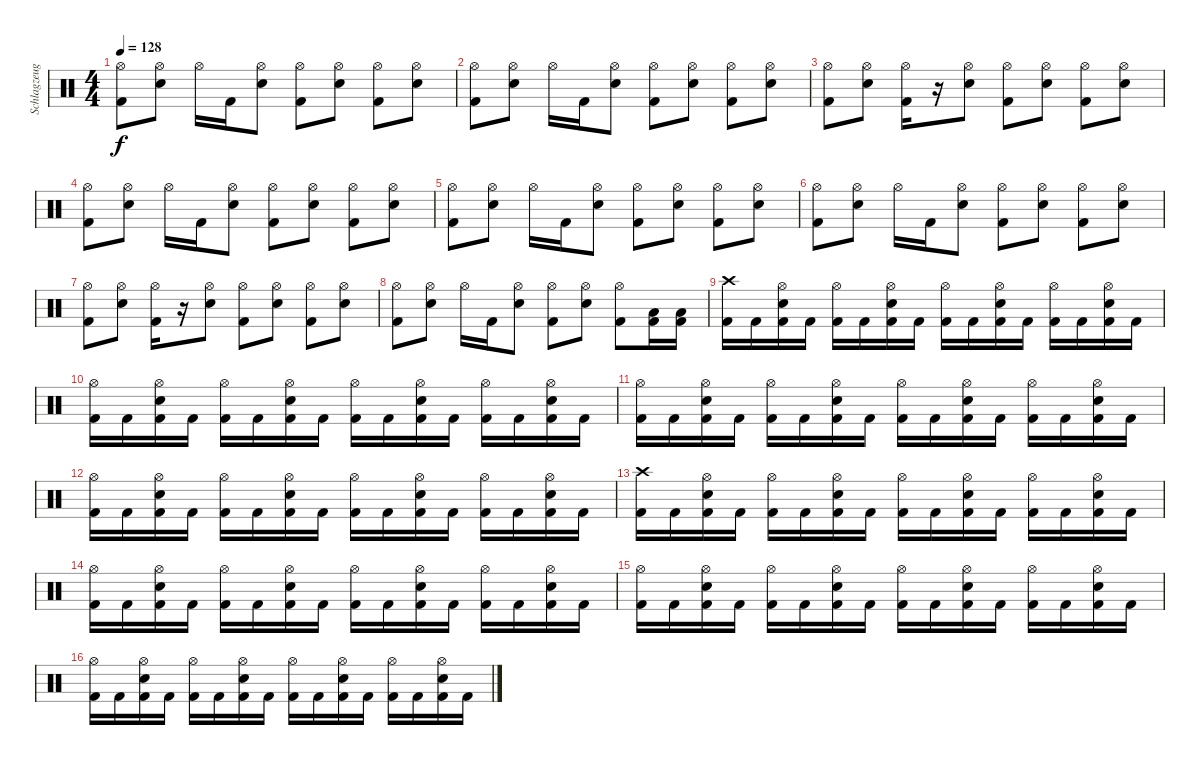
\track ("Schlagzeug" "Schlagzeug") {instrument percussion}
\staff {score}
\articulation defaults
\ts (4 4)
\tempo 128
\clef neutral
\ks c
("Hi-Hat (open)" "Kick (hit) 2").8{dy f} ("Hi-Hat (open)" "Snare (hit) 2").8 "Hi-Hat (open)".16 "Kick (hit) 2".16 ("Hi-Hat (open)" "Snare (hit) 2").8 ("Hi-Hat (open)" "Kick (hit) 2").8 ("Hi-Hat (open)" "Snare (hit) 2").8 ("Hi-Hat (open)" "Kick (hit) 2").8 ("Hi-Hat (open)" "Snare (hit) 2").8 |
("Hi-Hat (open)" "Kick (hit) 2").8 ("Hi-Hat (open)" "Snare (hit) 2").8 "Hi-Hat (open)".16 "Kick (hit) 2".16 ("Hi-Hat (open)" "Snare (hit) 2").8 ("Hi-Hat (open)" "Kick (hit) 2").8 ("Hi-Hat (open)" "Snare (hit) 2").8 ("Hi-Hat (open)" "Kick (hit) 2").8 ("Hi-Hat (open)" "Snare (hit) 2").8 |
("Hi-Hat (open)" "Kick (hit) 2").8 ("Hi-Hat (open)" "Snare (hit) 2").8 ("Hi-Hat (open)" "Kick (hit) 2").16 r.16 ("Hi-Hat (open)" "Snare (hit) 2").8 ("Hi-Hat (open)" "Kick (hit) 2").8 ("Hi-Hat (open)" "Snare (hit) 2").8 ("Hi-Hat (open)" "Kick (hit) 2").8 ("Hi-Hat (open)" "Snare (hit) 2").8 |
("Hi-Hat (open)" "Kick (hit) 2").8 ("Hi-Hat (open)" "Snare (hit) 2").8 "Hi-Hat (open)".16 "Kick (hit) 2".16 ("Hi-Hat (open)" "Snare (hit) 2").8 ("Hi-Hat (open)" "Kick (hit) 2").8 ("Hi-Hat (open)" "Snare (hit) 2").8 ("Hi-Hat (open)" "Kick (hit) 2").8 ("Hi-Hat (open)" "Snare (hit) 2").8 |
("Hi-Hat (open)" "Kick (hit) 2").8 ("Hi-Hat (open)" "Snare (hit) 2").8 "Hi-Hat (open)".16 "Kick (hit) 2".16 ("Hi-Hat (open)" "Snare (hit) 2").8 ("Hi-Hat (open)" "Kick (hit) 2").8 ("Hi-Hat (open)" "Snare (hit) 2").8 ("Hi-Hat (open)" "Kick (hit) 2").8 ("Hi-Hat (open)" "Snare (hit) 2").8 |
("Hi-Hat (open)" "Kick (hit) 2").8 ("Hi-Hat (open)" "Snare (hit) 2").8 "Hi-Hat (open)".16 "Kick (hit) 2".16 ("Hi-Hat (open)" "Snare (hit) 2").8 ("Hi-Hat (open)" "Kick (hit) 2").8 ("Hi-Hat (open)" "Snare (hit) 2").8 ("Hi-Hat (open)" "Kick (hit) 2").8 ("Hi-Hat (open)" "Snare (hit) 2").8 |
("Hi-Hat (open)" "Kick (hit) 2").8 ("Hi-Hat (open)" "Snare (hit) 2").8 ("Hi-Hat (open)" "Kick (hit) 2").16 r.16 ("Hi-Hat (open)" "Snare (hit) 2").8 ("Hi-Hat (open)" "Kick (hit) 2").8 ("Hi-Hat (open)" "Snare (hit) 2").8 ("Hi-Hat (open)" "Kick (hit) 2").8 ("Hi-Hat (open)" "Snare (hit) 2").8 |
("Hi-Hat (open)" "Kick (hit) 2").8 ("Hi-Hat (open)" "Snare (hit) 2").8 "Hi-Hat (open)".16 "Kick (hit) 2".16 ("Hi-Hat (open)" "Snare (hit) 2").8 ("Hi-Hat (open)" "Kick (hit) 2").8 ("Hi-Hat (open)" "Snare (hit) 2").8 ("Hi-Hat (open)" "Kick (hit) 2").8 ("Kick (hit) 2" "Low Floor Tom (hit)").16 ("Kick (hit) 2" "Low Floor Tom (hit)").16 |
("Crash high (hit)" "Kick (hit) 2").16 "Kick (hit) 2".16 ("Hi-Hat (open)" "Snare (hit) 2" "Kick (hit) 2").16 "Kick (hit) 2".16 ("Hi-Hat (open)" "Kick (hit) 2").16 "Kick (hit) 2".16 ("Hi-Hat (open)" "Snare (hit) 2" "Kick (hit) 2").16 "Kick (hit) 2".16 ("Hi-Hat (open)" "Kick (hit) 2").16 "Kick (hit) 2".16 ("Hi-Hat (open)" "Snare (hit) 2" "Kick (hit) 2").16 "Kick (hit) 2".16 ("Hi-Hat (open)" "Kick (hit) 2").16 "Kick (hit) 2".16 ("Hi-Hat (open)" "Snare (hit) 2" "Kick (hit) 2").16 "Kick (hit) 2".16 |
("Hi-Hat (open)" "Kick (hit) 2").16 "Kick (hit) 2".16 ("Hi-Hat (open)" "Snare (hit) 2" "Kick (hit) 2").16 "Kick (hit) 2".16 ("Hi-Hat (open)" "Kick (hit) 2").16 "Kick (hit) 2".16 ("Hi-Hat (open)" "Snare (hit) 2" "Kick (hit) 2").16 "Kick (hit) 2".16 ("Hi-Hat (open)" "Kick (hit) 2").16 "Kick (hit) 2".16 ("Hi-Hat (open)" "Snare (hit) 2" "Kick (hit) 2").16 "Kick (hit) 2".16 ("Hi-Hat (open)" "Kick (hit) 2").16 "Kick (hit) 2".16 ("Hi-Hat (open)" "Snare (hit) 2" "Kick (hit) 2").16 "Kick (hit) 2".16 |
("Hi-Hat (open)" "Kick (hit) 2").16 "Kick (hit) 2".16 ("Hi-Hat (open)" "Snare (hit) 2" "Kick (hit) 2").16 "Kick (hit) 2".16 ("Hi-Hat (open)" "Kick (hit) 2").16 "Kick (hit) 2".16 ("Hi-Hat (open)" "Snare (hit) 2" "Kick (hit) 2").16 "Kick (hit) 2".16 ("Hi-Hat (open)" "Kick (hit) 2").16 "Kick (hit) 2".16 ("Hi-Hat (open)" "Snare (hit) 2" "Kick (hit) 2").16 "Kick (hit) 2".16 ("Hi-Hat (open)" "Kick (hit) 2").16 "Kick (hit) 2".16 ("Hi-Hat (open)" "Snare (hit) 2" "Kick (hit) 2").16 "Kick (hit) 2".16 |
("Hi-Hat (open)" "Kick (hit) 2").16 "Kick (hit) 2".16 ("Hi-Hat (open)" "Snare (hit) 2" "Kick (hit) 2").16 "Kick (hit) 2".16 ("Hi-Hat (open)" "Kick (hit) 2").16 "Kick (hit) 2".16 ("Hi-Hat (open)" "Snare (hit) 2" "Kick (hit) 2").16 "Kick (hit) 2".16 ("Hi-Hat (open)" "Kick (hit) 2").16 "Kick (hit) 2".16 ("Hi-Hat (open)" "Snare (hit) 2" "Kick (hit) 2").16 "Kick (hit) 2".16 ("Hi-Hat (open)" "Kick (hit) 2").16 "Kick (hit) 2".16 ("Hi-Hat (open)" "Snare (hit) 2" "Kick (hit) 2").16 "Kick (hit) 2".16 |
("Crash high (hit)" "Kick (hit) 2").16 "Kick (hit) 2".16 ("Hi-Hat (open)" "Snare (hit) 2" "Kick (hit) 2").16 "Kick (hit) 2".16 ("Hi-Hat (open)" "Kick (hit) 2").16 "Kick (hit) 2".16 ("Hi-Hat (open)" "Snare (hit) 2" "Kick (hit) 2").16 "Kick (hit) 2".16 ("Hi-Hat (open)" "Kick (hit) 2").16 "Kick (hit) 2".16 ("Hi-Hat (open)" "Snare (hit) 2" "Kick (hit) 2").16 "Kick (hit) 2".16 ("Hi-Hat (open)" "Kick (hit) 2").16 "Kick (hit) 2".16 ("Hi-Hat (open)" "Snare (hit) 2" "Kick (hit) 2").16 "Kick (hit) 2".16 |
("Hi-Hat (open)" "Kick (hit) 2").16 "Kick (hit) 2".16 ("Hi-Hat (open)" "Snare (hit) 2" "Kick (hit) 2").16 "Kick (hit) 2".16 ("Hi-Hat (open)" "Kick (hit) 2").16 "Kick (hit) 2".16 ("Hi-Hat (open)" "Snare (hit) 2" "Kick (hit) 2").16 "Kick (hit) 2".16 ("Hi-Hat (open)" "Kick (hit) 2").16 "Kick (hit) 2".16 ("Hi-Hat (open)" "Snare (hit) 2" "Kick (hit) 2").16 "Kick (hit) 2".16 ("Hi-Hat (open)" "Kick (hit) 2").16 "Kick (hit) 2".16 ("Hi-Hat (open)" "Snare (hit) 2" "Kick (hit) 2").16 "Kick (hit) 2".16 |
("Hi-Hat (open)" "Kick (hit) 2").16 "Kick (hit) 2".16 ("Hi-Hat (open)" "Snare (hit) 2" "Kick (hit) 2").16 "Kick (hit) 2".16 ("Hi-Hat (open)" "Kick (hit) 2").16 "Kick (hit) 2".16 ("Hi-Hat (open)" "Snare (hit) 2" "Kick (hit) 2").16 "Kick (hit) 2".16 ("Hi-Hat (open)" "Kick (hit) 2").16 "Kick (hit) 2".16 ("Hi-Hat (open)" "Snare (hit) 2" "Kick (hit) 2").16 "Kick (hit) 2".16 ("Hi-Hat (open)" "Kick (hit) 2").16 "Kick (hit) 2".16 ("Hi-Hat (open)" "Snare (hit) 2" "Kick (hit) 2").16 "Kick (hit) 2".16 |
("Hi-Hat (open)" "Kick (hit) 2").16 "Kick (hit) 2".16 ("Hi-Hat (open)" "Snare (hit) 2" "Kick (hit) 2").16 "Kick (hit) 2".16 ("Hi-Hat (open)" "Kick (hit) 2").16 "Kick (hit) 2".16 ("Hi-Hat (open)" "Snare (hit) 2" "Kick (hit) 2").16 "Kick (hit) 2".16 ("Hi-Hat (open)" "Kick (hit) 2").16 "Kick (hit) 2".16 ("Hi-Hat (open)" "Snare (hit) 2" "Kick (hit) 2").16 "Kick (hit) 2".16 ("Hi-Hat (open)" "Kick (hit) 2").16 "Kick (hit) 2".16 ("Hi-Hat (open)" "Snare (hit) 2" "Kick (hit) 2").16 "Kick (hit) 2".16
